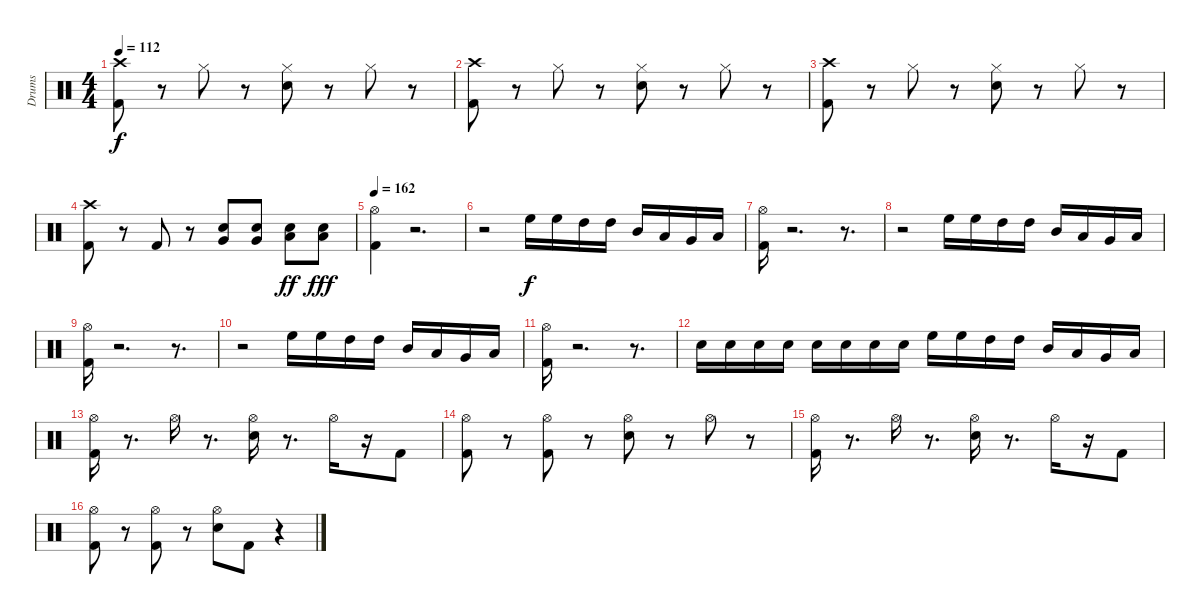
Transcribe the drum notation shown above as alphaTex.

\track ("Drums" "Drums") {instrument percussion}
\staff {score}
\articulation defaults
\ts (4 4)
\tempo 112
\clef neutral
\ks c
("Kick (hit) 2" "Crash high (hit)").8{dy f} r.8 "Hi-Hat (closed)".8 r.8 ("Electric Snare (hit)" "Hi-Hat (closed)").8 r.8 "Hi-Hat (closed)".8 r.8 |
("Kick (hit) 2" "Crash high (hit)").8 r.8 "Hi-Hat (closed)".8 r.8 ("Electric Snare (hit)" "Hi-Hat (closed)").8 r.8 "Hi-Hat (closed)".8 r.8 |
("Kick (hit) 2" "Crash high (hit)").8 r.8 "Hi-Hat (closed)".8 r.8 ("Hi-Hat (closed)" "Electric Snare (hit)").8 r.8 "Hi-Hat (closed)".8 r.8 |
("Kick (hit) 2" "Crash high (hit)").8 r.8 "Kick (hit) 2".8 r.8 ("Very Low Tom (hit)" "Electric Snare (hit)").8 ("Very Low Tom (hit)" "Electric Snare (hit)").8 ("Electric Snare (hit)" "Low Tom (hit)").8{dy ff} ("Low Tom (hit)" "Electric Snare (hit)").8{dy fff} |
\tempo 162
("Kick (hit) 2" "Hi-Hat (open)").4 r.2{d} |
r.2 "High Floor Tom (hit)".16{dy f} "High Floor Tom (hit)".16 "High Tom (hit)".16 "High Tom (hit)".16 "Mid Tom (hit)".16 "Low Tom (hit)".16 "Very Low Tom (hit)".16 "Low Floor Tom (hit)".16 |
("Hi-Hat (open)" "Kick (hit) 2").16 r.2{d} r.8{d} |
r.2 "High Floor Tom (hit)".16 "High Floor Tom (hit)".16 "High Tom (hit)".16 "High Tom (hit)".16 "Mid Tom (hit)".16 "Low Tom (hit)".16 "Very Low Tom (hit)".16 "Low Floor Tom (hit)".16 |
("Hi-Hat (open)" "Kick (hit) 2").16 r.2{d} r.8{d} |
r.2 "High Floor Tom (hit)".16 "High Floor Tom (hit)".16 "High Tom (hit)".16 "High Tom (hit)".16 "Mid Tom (hit)".16 "Low Tom (hit)".16 "Very Low Tom (hit)".16 "Low Floor Tom (hit)".16 |
("Hi-Hat (open)" "Kick (hit) 2").16 r.2{d} r.8{d} |
"Electric Snare (hit)".16 "Electric Snare (hit)".16 "Electric Snare (hit)".16 "Electric Snare (hit)".16 "Electric Snare (hit)".16 "Electric Snare (hit)".16 "Electric Snare (hit)".16 "Electric Snare (hit)".16 "High Floor Tom (hit)".16 "High Floor Tom (hit)".16 "High Tom (hit)".16 "High Tom (hit)".16 "Mid Tom (hit)".16 "Low Tom (hit)".16 "Very Low Tom (hit)".16 "Low Floor Tom (hit)".16 |
("Kick (hit) 2" "Hi-Hat (open)").16 r.8{d} "Hi-Hat (open)".16 r.8{d} ("Hi-Hat (open)" "Electric Snare (hit)").16 r.8{d} "Hi-Hat (open)".16 r.16 "Kick (hit) 2".8 |
("Kick (hit) 2" "Hi-Hat (open)").8 r.8 ("Hi-Hat (open)" "Kick (hit) 2").8 r.8 ("Electric Snare (hit)" "Hi-Hat (open)").8 r.8 "Hi-Hat (open)".8 r.8 |
("Hi-Hat (open)" "Kick (hit) 2").16 r.8{d} "Hi-Hat (open)".16 r.8{d} ("Electric Snare (hit)" "Hi-Hat (open)").16 r.8{d} "Hi-Hat (open)".16 r.16 "Kick (hit) 2".8 |
("Hi-Hat (open)" "Kick (hit) 2").8 r.8 ("Kick (hit) 2" "Hi-Hat (open)").8 r.8 ("Electric Snare (hit)" "Hi-Hat (open)").8 "Kick (hit) 2".8 r.4
